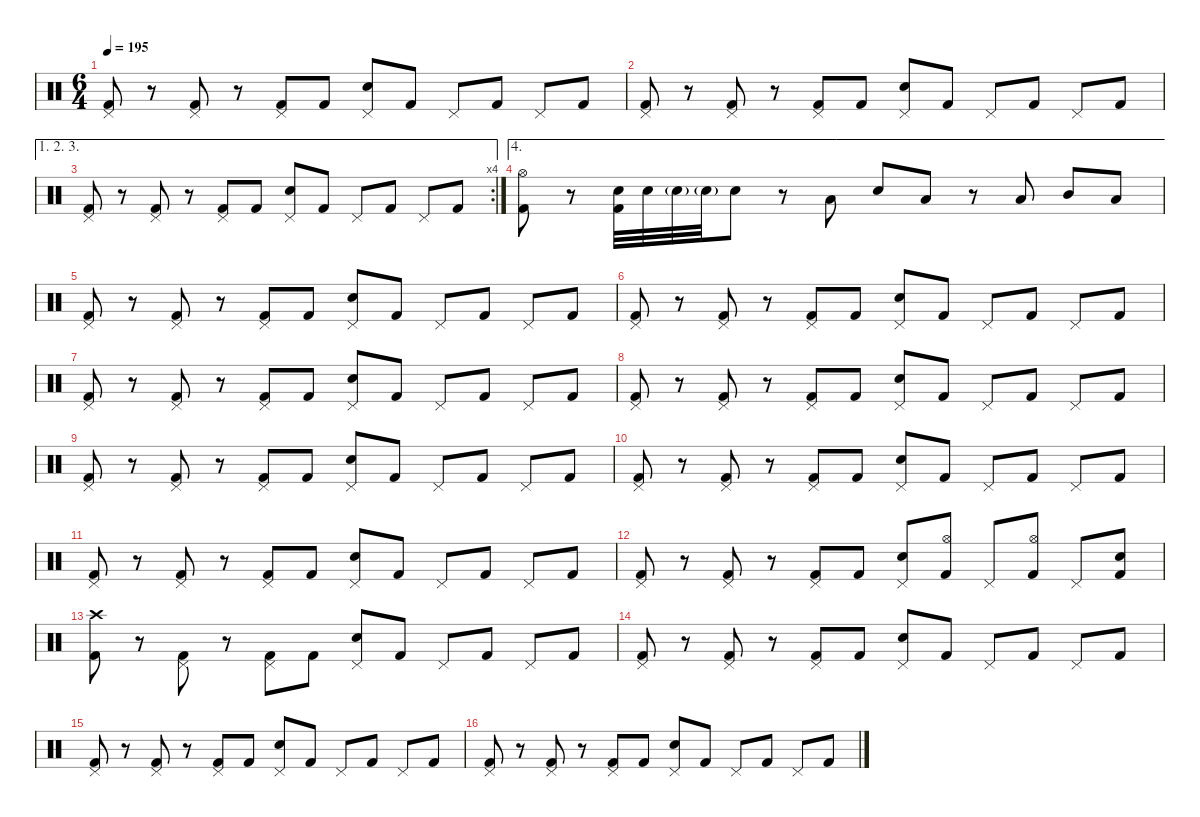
\defaultSystemsLayout 4
\hideDynamics
\bracketExtendMode nobrackets
\singleTrackTrackNamePolicy hidden
\multiTrackTrackNamePolicy hidden
\firstSystemTrackNameMode fullname
\firstSystemTrackNameOrientation horizontal
\otherSystemsTrackNameOrientation horizontal
\track ("Drums" "drm.") {instrument percussion}
\staff {score}
\articulation defaults
\ts (6 4)
\tempo 195
\clef neutral
\ks c
("Pedal Hi-Hat (hit)" "Kick (hit) 2").8{dy f beam Up} r.8{beam Up} ("Pedal Hi-Hat (hit)" "Kick (hit) 2").8{beam Up} r.8{beam Up} ("Pedal Hi-Hat (hit)" "Kick (hit) 2").8{beam Up} "Kick (hit) 2".8{beam Up} ("Pedal Hi-Hat (hit)" "Snare (hit) 2").8{beam Up} "Kick (hit) 2".8{beam Up} "Pedal Hi-Hat (hit)".8{beam Up} "Kick (hit) 2".8{beam Up} "Pedal Hi-Hat (hit)".8{beam Up} "Kick (hit) 2".8{beam Up} |
("Pedal Hi-Hat (hit)" "Kick (hit) 2").8{beam Up} r.8{beam Up} ("Pedal Hi-Hat (hit)" "Kick (hit) 2").8{beam Up} r.8{beam Up} ("Pedal Hi-Hat (hit)" "Kick (hit) 2").8{beam Up} "Kick (hit) 2".8{beam Up} ("Pedal Hi-Hat (hit)" "Snare (hit) 2").8{beam Up} "Kick (hit) 2".8{beam Up} "Pedal Hi-Hat (hit)".8{beam Up} "Kick (hit) 2".8{beam Up} "Pedal Hi-Hat (hit)".8{beam Up} "Kick (hit) 2".8{beam Up} |
\ae (1 2 3)
\rc 4
("Pedal Hi-Hat (hit)" "Kick (hit) 2").8{beam Up} r.8{beam Up} ("Pedal Hi-Hat (hit)" "Kick (hit) 2").8{beam Up} r.8{beam Up} ("Pedal Hi-Hat (hit)" "Kick (hit) 2").8{beam Up} "Kick (hit) 2".8{beam Up} ("Pedal Hi-Hat (hit)" "Snare (hit) 2").8{beam Up} "Kick (hit) 2".8{beam Up} "Pedal Hi-Hat (hit)".8{beam Up} "Kick (hit) 2".8{beam Up} "Pedal Hi-Hat (hit)".8{beam Up} "Kick (hit) 2".8{beam Up} |
\ae 4
("Hi-Hat (open)" "Kick (hit) 2").8{beam Down} r.8{beam Down} ("Snare (hit) 2" "Kick (hit) 2").32{dy pp beam Down} "Snare (hit) 2".32{beam Down} "Snare (hit) 2"{g}.32{beam Down} "Snare (hit) 2"{g}.32{dy mf beam Down} "Snare (hit) 2".8{beam Down} r.8{beam Down} "Low Tom (hit)".8{dy f beam Down} "Snare (hit) 2".8{beam Up} "Low Tom (hit)".8{beam Up} r.8{beam Up} "Low Tom (hit)".8{beam Up} "Mid Tom (hit)".8{beam Up} "Low Tom (hit)".8{beam Up} |
("Pedal Hi-Hat (hit)" "Kick (hit) 2").8{beam Up} r.8{beam Up} ("Pedal Hi-Hat (hit)" "Kick (hit) 2").8{beam Up} r.8{beam Up} ("Pedal Hi-Hat (hit)" "Kick (hit) 2").8{beam Up} "Kick (hit) 2".8{beam Up} ("Pedal Hi-Hat (hit)" "Snare (hit) 2").8{beam Up} "Kick (hit) 2".8{beam Up} "Pedal Hi-Hat (hit)".8{beam Up} "Kick (hit) 2".8{beam Up} "Pedal Hi-Hat (hit)".8{beam Up} "Kick (hit) 2".8{beam Up} |
("Pedal Hi-Hat (hit)" "Kick (hit) 2").8{beam Up} r.8{beam Up} ("Pedal Hi-Hat (hit)" "Kick (hit) 2").8{beam Up} r.8{beam Up} ("Pedal Hi-Hat (hit)" "Kick (hit) 2").8{beam Up} "Kick (hit) 2".8{beam Up} ("Pedal Hi-Hat (hit)" "Snare (hit) 2").8{beam Up} "Kick (hit) 2".8{beam Up} "Pedal Hi-Hat (hit)".8{beam Up} "Kick (hit) 2".8{beam Up} "Pedal Hi-Hat (hit)".8{beam Up} "Kick (hit) 2".8{beam Up} |
("Pedal Hi-Hat (hit)" "Kick (hit) 2").8{beam Up} r.8{beam Up} ("Pedal Hi-Hat (hit)" "Kick (hit) 2").8{beam Up} r.8{beam Up} ("Pedal Hi-Hat (hit)" "Kick (hit) 2").8{beam Up} "Kick (hit) 2".8{beam Up} ("Pedal Hi-Hat (hit)" "Snare (hit) 2").8{beam Up} "Kick (hit) 2".8{beam Up} "Pedal Hi-Hat (hit)".8{beam Up} "Kick (hit) 2".8{beam Up} "Pedal Hi-Hat (hit)".8{beam Up} "Kick (hit) 2".8{beam Up} |
("Pedal Hi-Hat (hit)" "Kick (hit) 2").8{beam Up} r.8{beam Up} ("Pedal Hi-Hat (hit)" "Kick (hit) 2").8{beam Up} r.8{beam Up} ("Pedal Hi-Hat (hit)" "Kick (hit) 2").8{beam Up} "Kick (hit) 2".8{beam Up} ("Pedal Hi-Hat (hit)" "Snare (hit) 2").8{beam Up} "Kick (hit) 2".8{beam Up} "Pedal Hi-Hat (hit)".8{beam Up} "Kick (hit) 2".8{beam Up} "Pedal Hi-Hat (hit)".8{beam Up} "Kick (hit) 2".8{beam Up} |
("Pedal Hi-Hat (hit)" "Kick (hit) 2").8{beam Up} r.8{beam Up} ("Pedal Hi-Hat (hit)" "Kick (hit) 2").8{beam Up} r.8{beam Up} ("Pedal Hi-Hat (hit)" "Kick (hit) 2").8{beam Up} "Kick (hit) 2".8{beam Up} ("Pedal Hi-Hat (hit)" "Snare (hit) 2").8{beam Up} "Kick (hit) 2".8{beam Up} "Pedal Hi-Hat (hit)".8{beam Up} "Kick (hit) 2".8{beam Up} "Pedal Hi-Hat (hit)".8{beam Up} "Kick (hit) 2".8{beam Up} |
("Pedal Hi-Hat (hit)" "Kick (hit) 2").8{beam Up} r.8{beam Up} ("Pedal Hi-Hat (hit)" "Kick (hit) 2").8{beam Up} r.8{beam Up} ("Pedal Hi-Hat (hit)" "Kick (hit) 2").8{beam Up} "Kick (hit) 2".8{beam Up} ("Pedal Hi-Hat (hit)" "Snare (hit) 2").8{beam Up} "Kick (hit) 2".8{beam Up} "Pedal Hi-Hat (hit)".8{beam Up} "Kick (hit) 2".8{beam Up} "Pedal Hi-Hat (hit)".8{beam Up} "Kick (hit) 2".8{beam Up} |
("Pedal Hi-Hat (hit)" "Kick (hit) 2").8{beam Up} r.8{beam Up} ("Pedal Hi-Hat (hit)" "Kick (hit) 2").8{beam Up} r.8{beam Up} ("Pedal Hi-Hat (hit)" "Kick (hit) 2").8{beam Up} "Kick (hit) 2".8{beam Up} ("Pedal Hi-Hat (hit)" "Snare (hit) 2").8{beam Up} "Kick (hit) 2".8{beam Up} "Pedal Hi-Hat (hit)".8{beam Up} "Kick (hit) 2".8{beam Up} "Pedal Hi-Hat (hit)".8{beam Up} "Kick (hit) 2".8{beam Up} |
("Pedal Hi-Hat (hit)" "Kick (hit) 2").8{beam Up} r.8{beam Up} ("Pedal Hi-Hat (hit)" "Kick (hit) 2").8{beam Up} r.8{beam Up} ("Pedal Hi-Hat (hit)" "Kick (hit) 2").8{beam Up} "Kick (hit) 2".8{beam Up} ("Pedal Hi-Hat (hit)" "Snare (hit) 2").8{beam Up} ("Hi-Hat (open)" "Kick (hit) 2").8{beam Up} "Pedal Hi-Hat (hit)".8{beam Up} ("Hi-Hat (open)" "Kick (hit) 2").8{beam Up} "Pedal Hi-Hat (hit)".8{beam Up} ("Snare (hit) 2" "Kick (hit) 2").8{beam Up} |
("Crash high (hit)" "Kick (hit) 2").8{beam Down} r.8{beam Down} ("Pedal Hi-Hat (hit)" "Kick (hit) 2").8{beam Down} r.8{beam Down} ("Pedal Hi-Hat (hit)" "Kick (hit) 2").8{beam Down} "Kick (hit) 2".8{beam Down} ("Pedal Hi-Hat (hit)" "Snare (hit) 2").8{beam Up} "Kick (hit) 2".8{beam Up} "Pedal Hi-Hat (hit)".8{beam Up} "Kick (hit) 2".8{beam Up} "Pedal Hi-Hat (hit)".8{beam Up} "Kick (hit) 2".8{beam Up} |
("Pedal Hi-Hat (hit)" "Kick (hit) 2").8{beam Up} r.8{beam Up} ("Pedal Hi-Hat (hit)" "Kick (hit) 2").8{beam Up} r.8{beam Up} ("Pedal Hi-Hat (hit)" "Kick (hit) 2").8{beam Up} "Kick (hit) 2".8{beam Up} ("Pedal Hi-Hat (hit)" "Snare (hit) 2").8{beam Up} "Kick (hit) 2".8{beam Up} "Pedal Hi-Hat (hit)".8{beam Up} "Kick (hit) 2".8{beam Up} "Pedal Hi-Hat (hit)".8{beam Up} "Kick (hit) 2".8{beam Up} |
("Pedal Hi-Hat (hit)" "Kick (hit) 2").8{beam Up} r.8{beam Up} ("Pedal Hi-Hat (hit)" "Kick (hit) 2").8{beam Up} r.8{beam Up} ("Pedal Hi-Hat (hit)" "Kick (hit) 2").8{beam Up} "Kick (hit) 2".8{beam Up} ("Pedal Hi-Hat (hit)" "Snare (hit) 2").8{beam Up} "Kick (hit) 2".8{beam Up} "Pedal Hi-Hat (hit)".8{beam Up} "Kick (hit) 2".8{beam Up} "Pedal Hi-Hat (hit)".8{beam Up} "Kick (hit) 2".8{beam Up} |
("Pedal Hi-Hat (hit)" "Kick (hit) 2").8{beam Up} r.8{beam Up} ("Pedal Hi-Hat (hit)" "Kick (hit) 2").8{beam Up} r.8{beam Up} ("Pedal Hi-Hat (hit)" "Kick (hit) 2").8{beam Up} "Kick (hit) 2".8{beam Up} ("Pedal Hi-Hat (hit)" "Snare (hit) 2").8{beam Up} "Kick (hit) 2".8{beam Up} "Pedal Hi-Hat (hit)".8{beam Up} "Kick (hit) 2".8{beam Up} "Pedal Hi-Hat (hit)".8{beam Up} "Kick (hit) 2".8{beam Up}
